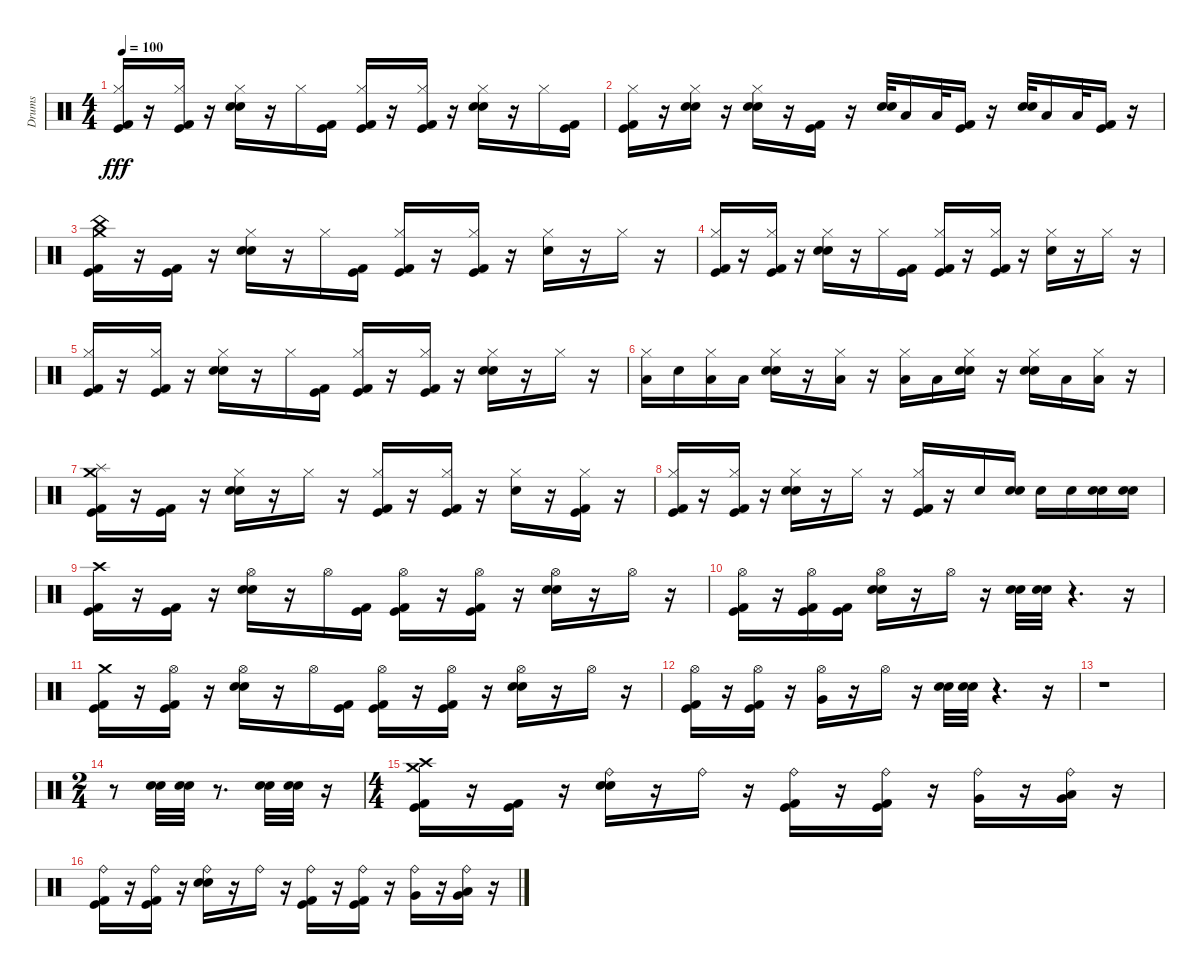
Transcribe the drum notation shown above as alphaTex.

\track ("Drums" "Drums") {instrument percussion}
\staff {score}
\articulation defaults
\ts (4 4)
\tempo 100
\clef neutral
\ks c
("Kick (hit)" "Hi-Hat (closed)" "Kick (hit) 2").16{dy fff} r.16 ("Kick (hit)" "Kick (hit) 2" "Hi-Hat (closed)").16 r.16 ("Electric Snare (hit)" "Hi-Hat (closed)" "Snare (hit) 2").16 r.16 "Hi-Hat (closed)".16 ("Kick (hit)" "Kick (hit) 2").16 ("Kick (hit)" "Hi-Hat (closed)" "Kick (hit) 2").16 r.16 ("Hi-Hat (closed)" "Kick (hit)" "Kick (hit) 2").16 r.16 ("Snare (hit) 2" "Electric Snare (hit)" "Hi-Hat (closed)").16 r.16 "Hi-Hat (closed)".16 ("Kick (hit)" "Kick (hit) 2").16 |
("Hi-Hat (closed)" "Kick (hit) 2" "Kick (hit)").16 r.16 ("Hi-Hat (closed)" "Electric Snare (hit)" "Snare (hit) 2").16 r.16 ("Electric Snare (hit)" "Snare (hit) 2" "Hi-Hat (closed)").16 r.16 ("Kick (hit)" "Kick (hit) 2").16 r.16 ("Snare (hit) 2" "Electric Snare (hit)").32 "Low Tom (hit)".16 "Low Floor Tom (hit)".32 ("Kick (hit) 2" "Kick (hit)").16 r.16 ("Electric Snare (hit)" "Snare (hit) 2").32 "Low Tom (hit)".16 "Low Floor Tom (hit)".32 ("Kick (hit) 2" "Kick (hit)").16 r.16 |
("Kick (hit)" "Kick (hit) 2" "China (hit)" "Crash medium (hit)").16 r.16 ("Kick (hit)" "Kick (hit) 2").16 r.16 ("Snare (hit) 2" "Hi-Hat (closed)" "Electric Snare (hit)").16 r.16 "Hi-Hat (closed)".16 ("Kick (hit) 2" "Kick (hit)").16 ("Kick (hit)" "Hi-Hat (closed)" "Kick (hit) 2").16 r.16 ("Hi-Hat (closed)" "Kick (hit)" "Kick (hit) 2").16 r.16 ("Hi-Hat (closed)" "Electric Snare (hit)").16 r.16 "Hi-Hat (closed)".16 r.16 |
("Hi-Hat (closed)" "Kick (hit)" "Kick (hit) 2").16 r.16 ("Kick (hit)" "Hi-Hat (closed)" "Kick (hit) 2").16 r.16 ("Snare (hit) 2" "Electric Snare (hit)" "Hi-Hat (closed)").16 r.16 "Hi-Hat (closed)".16 ("Kick (hit)" "Kick (hit) 2").16 ("Kick (hit)" "Hi-Hat (closed)" "Kick (hit) 2").16 r.16 ("Kick (hit)" "Hi-Hat (closed)" "Kick (hit) 2").16 r.16 ("Hi-Hat (closed)" "Electric Snare (hit)").16 r.16 "Hi-Hat (closed)".16 r.16 |
("Kick (hit)" "Hi-Hat (closed)" "Kick (hit) 2").16 r.16 ("Kick (hit) 2" "Hi-Hat (closed)" "Kick (hit)").16 r.16 ("Hi-Hat (closed)" "Snare (hit) 2" "Electric Snare (hit)").16 r.16 "Hi-Hat (closed)".16 ("Kick (hit)" "Kick (hit) 2").16 ("Kick (hit) 2" "Kick (hit)" "Hi-Hat (closed)").16 r.16 ("Kick (hit)" "Kick (hit) 2" "Hi-Hat (closed)").16 r.16 ("Snare (hit) 2" "Electric Snare (hit)" "Hi-Hat (closed)").16 r.16 "Hi-Hat (closed)".16 r.16 |
("Low Tom (hit)" "Hi-Hat (closed)").16 "Electric Snare (hit)".16 ("Low Floor Tom (hit)" "Hi-Hat (closed)").16 "Low Tom (hit)".16 ("Snare (hit) 2" "Hi-Hat (closed)" "Electric Snare (hit)").16 r.16 ("Low Floor Tom (hit)" "Hi-Hat (closed)").16 r.16 ("Low Floor Tom (hit)" "Hi-Hat (closed)").16 "Low Tom (hit)".16 ("Snare (hit) 2" "Electric Snare (hit)" "Hi-Hat (closed)").16 r.16 ("Hi-Hat (closed)" "Snare (hit) 2" "Electric Snare (hit)").16 "Low Tom (hit)".16 ("Low Floor Tom (hit)" "Hi-Hat (closed)").16 r.16 |
("Crash medium (hit)" "Kick (hit) 2" "Splash (hit)" "Kick (hit)").16 r.16 ("Kick (hit)" "Kick (hit) 2").16 r.16 ("Electric Snare (hit)" "Hi-Hat (closed)" "Snare (hit) 2").16 r.16 "Hi-Hat (closed)".16 r.16 ("Kick (hit) 2" "Hi-Hat (closed)" "Kick (hit)").16 r.16 ("Kick (hit) 2" "Hi-Hat (closed)" "Kick (hit)").16 r.16 ("Hi-Hat (closed)" "Electric Snare (hit)").16 r.16 ("Hi-Hat (closed)" "Kick (hit) 2" "Kick (hit)").16 r.16 |
("Kick (hit) 2" "Kick (hit)" "Hi-Hat (closed)").16 r.16 ("Kick (hit)" "Kick (hit) 2" "Hi-Hat (closed)").16 r.16 ("Electric Snare (hit)" "Hi-Hat (closed)" "Snare (hit) 2").16 r.16 "Hi-Hat (closed)".16 r.16 ("Kick (hit) 2" "Hi-Hat (closed)" "Kick (hit)").16 r.16 "Electric Snare (hit)".16 ("Electric Snare (hit)" "Snare (hit) 2").16 "Electric Snare (hit)".16 "Electric Snare (hit)".16 ("Electric Snare (hit)" "Snare (hit) 2").16 ("Snare (hit) 2" "Electric Snare (hit)").16 |
("Kick (hit) 2" "Kick (hit)" "Crash high (hit)").16 r.16 ("Kick (hit) 2" "Kick (hit)").16 r.16 ("Electric Snare (hit)" "Hi-Hat (open)" "Snare (hit) 2").16 r.16 "Hi-Hat (open)".16 ("Kick (hit) 2" "Kick (hit)").16 ("Kick (hit)" "Kick (hit) 2" "Hi-Hat (open)").16 r.16 ("Kick (hit)" "Kick (hit) 2" "Hi-Hat (open)").16 r.16 ("Electric Snare (hit)" "Hi-Hat (open)" "Snare (hit) 2").16 r.16 "Hi-Hat (open)".16 r.16 |
("Kick (hit)" "Kick (hit) 2" "Hi-Hat (open)").16 r.16 ("Kick (hit) 2" "Hi-Hat (open)" "Kick (hit)").16 ("Kick (hit)" "Kick (hit) 2").16 ("Electric Snare (hit)" "Snare (hit) 2" "Hi-Hat (open)").16 r.16 "Hi-Hat (open)".16 r.16 ("Electric Snare (hit)" "Snare (hit) 2").32 ("Electric Snare (hit)" "Snare (hit) 2").32 r.4{d} r.16 |
("Kick (hit)" "Crash medium (hit)" "Kick (hit) 2").16 r.16 ("Kick (hit) 2" "Kick (hit)" "Hi-Hat (open)").16 r.16 ("Hi-Hat (open)" "Electric Snare (hit)" "Snare (hit) 2").16 r.16 "Hi-Hat (open)".16 ("Kick (hit) 2" "Kick (hit)").16 ("Kick (hit) 2" "Hi-Hat (open)" "Kick (hit)").16 r.16 ("Kick (hit)" "Hi-Hat (open)" "Kick (hit) 2").16 r.16 ("Hi-Hat (open)" "Electric Snare (hit)" "Snare (hit) 2").16 r.16 "Hi-Hat (open)".16 r.16 |
("Kick (hit)" "Hi-Hat (open)" "Kick (hit) 2").16 r.16 ("Kick (hit) 2" "Kick (hit)" "Hi-Hat (open)").16 r.16 ("Very Low Tom (hit)" "Hi-Hat (open)").16 r.16 "Hi-Hat (open)".16 r.16 ("Electric Snare (hit)" "Snare (hit) 2").32 ("Snare (hit) 2" "Electric Snare (hit)").32 r.4{d} r.16 |
r.1 |
\ts (2 4)
r.8 ("Electric Snare (hit)" "Snare (hit) 2").32 ("Electric Snare (hit)" "Snare (hit) 2").32 r.8{d} ("Snare (hit) 2" "Electric Snare (hit)").32 ("Electric Snare (hit)" "Snare (hit) 2").32 r.16 |
\ts (4 4)
("Kick (hit) 2" "Kick (hit)" "Crash medium (hit)" "Crash high (hit)").16 r.16 ("Kick (hit)" "Kick (hit) 2").16 r.16 ("Snare (hit) 2" "Electric Snare (hit)" "Ride (bell)").16 r.16 "Ride (bell)".16 r.16 ("Kick (hit)" "Ride (bell)" "Kick (hit) 2").16 r.16 ("Kick (hit) 2" "Kick (hit)" "Ride (bell)").16 r.16 ("Very Low Tom (hit)" "Ride (bell)").16 r.16 ("Ride (bell)" "Low Floor Tom (hit)" "Very Low Tom (hit)").16 r.16 |
("Kick (hit) 2" "Ride (bell)" "Kick (hit)").16 r.16 ("Ride (bell)" "Kick (hit) 2" "Kick (hit)").16 r.16 ("Electric Snare (hit)" "Snare (hit) 2" "Ride (bell)").16 r.16 "Ride (bell)".16 r.16 ("Kick (hit)" "Ride (bell)" "Kick (hit) 2").16 r.16 ("Ride (bell)" "Kick (hit) 2" "Kick (hit)").16 r.16 ("Ride (bell)" "Very Low Tom (hit)").16 r.16 ("Low Floor Tom (hit)" "Very Low Tom (hit)" "Ride (bell)").16 r.16
